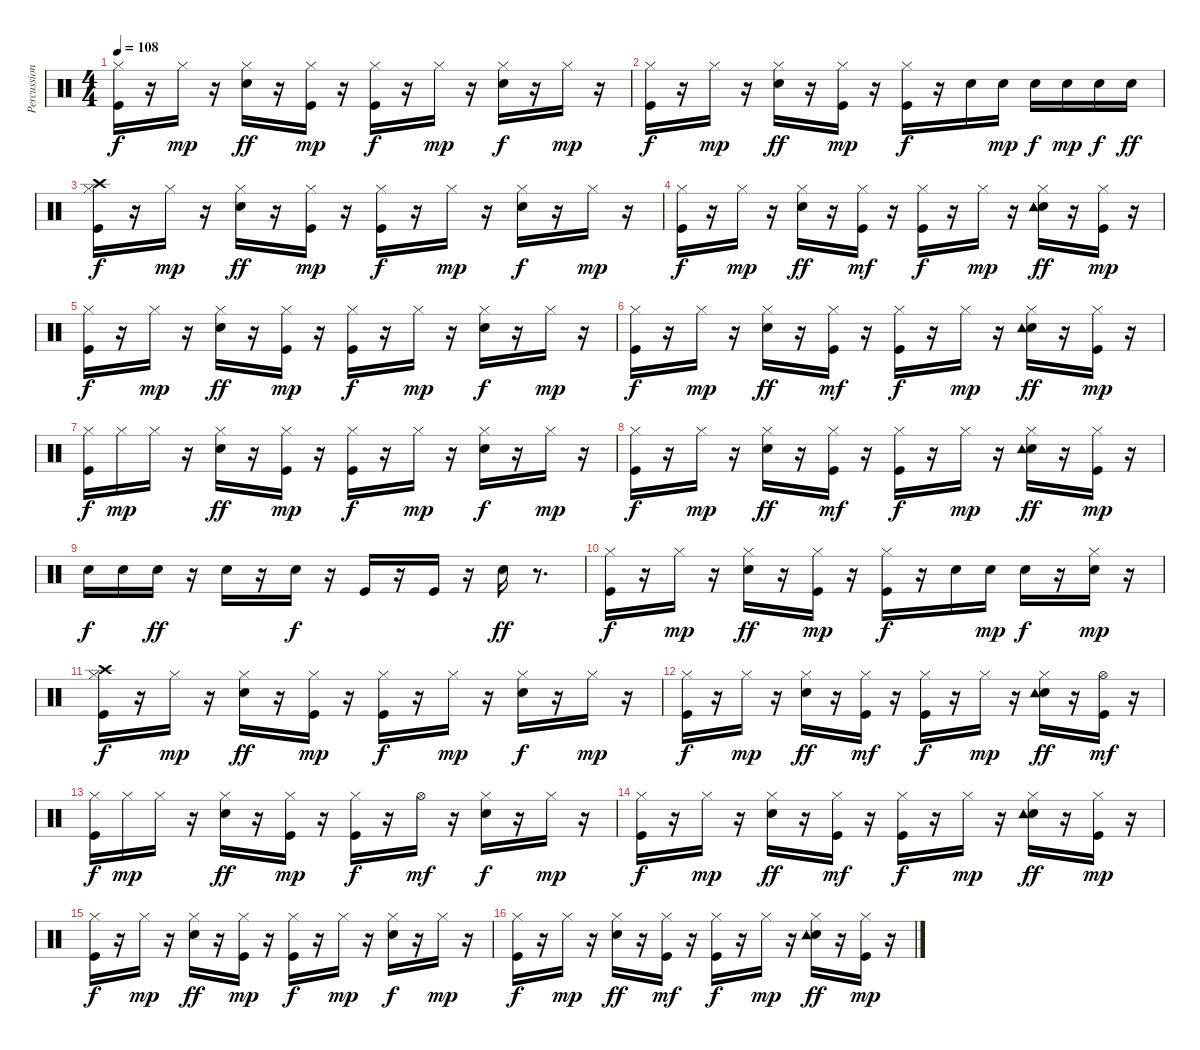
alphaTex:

\track ("Percussion" "Percussion") {instrument percussion}
\staff {score}
\articulation defaults
\ts (4 4)
\tempo 108
\clef neutral
\ks c
("Kick (hit)" "Hi-Hat (closed)").16{dy f} r.16 "Hi-Hat (closed)".16{dy mp} r.16 ("Snare (hit) 2" "Hi-Hat (closed)").16{dy ff} r.16 ("Kick (hit)" "Hi-Hat (closed)").16{dy mp} r.16 ("Kick (hit)" "Hi-Hat (closed)").16{dy f} r.16 "Hi-Hat (closed)".16{dy mp} r.16 ("Snare (hit) 2" "Hi-Hat (closed)").16{dy f} r.16 "Hi-Hat (closed)".16{dy mp} r.16 |
("Kick (hit)" "Hi-Hat (closed)").16{dy f} r.16 "Hi-Hat (closed)".16{dy mp} r.16 ("Snare (hit) 2" "Hi-Hat (closed)").16{dy ff} r.16 ("Kick (hit)" "Hi-Hat (closed)").16{dy mp} r.16 ("Kick (hit)" "Hi-Hat (closed)").16{dy f} r.16 "Snare (hit) 2".16 "Snare (hit) 2".16{dy mp} "Snare (hit) 2".16{dy f} "Snare (hit) 2".16{dy mp} "Snare (hit) 2".16{dy f} "Snare (hit) 2".16{dy ff} |
("Kick (hit)" "Hi-Hat (closed)" "Crash high (hit)").16{dy f} r.16 "Hi-Hat (closed)".16{dy mp} r.16 ("Snare (hit) 2" "Hi-Hat (closed)").16{dy ff} r.16 ("Kick (hit)" "Hi-Hat (closed)").16{dy mp} r.16 ("Kick (hit)" "Hi-Hat (closed)").16{dy f} r.16 "Hi-Hat (closed)".16{dy mp} r.16 ("Snare (hit) 2" "Hi-Hat (closed)").16{dy f} r.16 "Hi-Hat (closed)".16{dy mp} r.16 |
("Kick (hit)" "Hi-Hat (closed)").16{dy f} r.16 "Hi-Hat (closed)".16{dy mp} r.16 ("Snare (hit) 2" "Hi-Hat (closed)").16{dy ff} r.16 ("Kick (hit)" "Hi-Hat (closed)").16{dy mf} r.16 ("Kick (hit)" "Hi-Hat (closed)").16{dy f} r.16 "Hi-Hat (closed)".16{dy mp} r.16 ("Snare (hit) 2" "Hi-Hat (closed)" "Tambourine (hit)").16{dy ff} r.16 ("Kick (hit)" "Hi-Hat (closed)").16{dy mp} r.16 |
("Kick (hit)" "Hi-Hat (closed)").16{dy f} r.16 "Hi-Hat (closed)".16{dy mp} r.16 ("Snare (hit) 2" "Hi-Hat (closed)").16{dy ff} r.16 ("Kick (hit)" "Hi-Hat (closed)").16{dy mp} r.16 ("Kick (hit)" "Hi-Hat (closed)").16{dy f} r.16 "Hi-Hat (closed)".16{dy mp} r.16 ("Snare (hit) 2" "Hi-Hat (closed)").16{dy f} r.16 "Hi-Hat (closed)".16{dy mp} r.16 |
("Kick (hit)" "Hi-Hat (closed)").16{dy f} r.16 "Hi-Hat (closed)".16{dy mp} r.16 ("Snare (hit) 2" "Hi-Hat (closed)").16{dy ff} r.16 ("Kick (hit)" "Hi-Hat (closed)").16{dy mf} r.16 ("Kick (hit)" "Hi-Hat (closed)").16{dy f} r.16 "Hi-Hat (closed)".16{dy mp} r.16 ("Snare (hit) 2" "Hi-Hat (closed)" "Tambourine (hit)").16{dy ff} r.16 ("Kick (hit)" "Hi-Hat (closed)").16{dy mp} r.16 |
("Kick (hit)" "Hi-Hat (closed)").16{dy f} "Hi-Hat (closed)".16{dy mp} "Hi-Hat (closed)".16 r.16 ("Snare (hit) 2" "Hi-Hat (closed)").16{dy ff} r.16 ("Kick (hit)" "Hi-Hat (closed)").16{dy mp} r.16 ("Kick (hit)" "Hi-Hat (closed)").16{dy f} r.16 "Hi-Hat (closed)".16{dy mp} r.16 ("Snare (hit) 2" "Hi-Hat (closed)").16{dy f} r.16 "Hi-Hat (closed)".16{dy mp} r.16 |
("Kick (hit)" "Hi-Hat (closed)").16{dy f} r.16 "Hi-Hat (closed)".16{dy mp} r.16 ("Snare (hit) 2" "Hi-Hat (closed)").16{dy ff} r.16 ("Kick (hit)" "Hi-Hat (closed)").16{dy mf} r.16 ("Kick (hit)" "Hi-Hat (closed)").16{dy f} r.16 "Hi-Hat (closed)".16{dy mp} r.16 ("Snare (hit) 2" "Hi-Hat (closed)" "Tambourine (hit)").16{dy ff} r.16 ("Kick (hit)" "Hi-Hat (closed)").16{dy mp} r.16 |
"Snare (hit) 2".16{dy f} "Snare (hit) 2".16 "Snare (hit) 2".16{dy ff} r.16 "Snare (hit) 2".16 r.16 "Snare (hit) 2".16{dy f} r.16 "Kick (hit)".16 r.16 "Kick (hit)".16 r.16 "Snare (hit) 2".16{dy ff} r.8{d} |
("Kick (hit)" "Hi-Hat (closed)").16{dy f} r.16 "Hi-Hat (closed)".16{dy mp} r.16 ("Snare (hit) 2" "Hi-Hat (closed)").16{dy ff} r.16 ("Kick (hit)" "Hi-Hat (closed)").16{dy mp} r.16 ("Kick (hit)" "Hi-Hat (closed)").16{dy f} r.16 "Snare (hit) 2".16 "Snare (hit) 2".16{dy mp} "Snare (hit) 2".16{dy f} r.16 ("Snare (hit) 2" "Hi-Hat (closed)").16{dy mp} r.16 |
("Kick (hit)" "Hi-Hat (closed)" "Crash high (hit)").16{dy f} r.16 "Hi-Hat (closed)".16{dy mp} r.16 ("Snare (hit) 2" "Hi-Hat (closed)").16{dy ff} r.16 ("Kick (hit)" "Hi-Hat (closed)").16{dy mp} r.16 ("Kick (hit)" "Hi-Hat (closed)").16{dy f} r.16 "Hi-Hat (closed)".16{dy mp} r.16 ("Snare (hit) 2" "Hi-Hat (closed)").16{dy f} r.16 "Hi-Hat (closed)".16{dy mp} r.16 |
("Kick (hit)" "Hi-Hat (closed)").16{dy f} r.16 "Hi-Hat (closed)".16{dy mp} r.16 ("Snare (hit) 2" "Hi-Hat (closed)").16{dy ff} r.16 ("Kick (hit)" "Hi-Hat (closed)").16{dy mf} r.16 ("Kick (hit)" "Hi-Hat (closed)").16{dy f} r.16 "Hi-Hat (closed)".16{dy mp} r.16 ("Snare (hit) 2" "Hi-Hat (closed)" "Tambourine (hit)").16{dy ff} r.16 ("Kick (hit)" "Hi-Hat (open)").16{dy mf} r.16 |
("Kick (hit)" "Hi-Hat (closed)").16{dy f} "Hi-Hat (closed)".16{dy mp} "Hi-Hat (closed)".16 r.16 ("Snare (hit) 2" "Hi-Hat (closed)").16{dy ff} r.16 ("Kick (hit)" "Hi-Hat (closed)").16{dy mp} r.16 ("Kick (hit)" "Hi-Hat (closed)").16{dy f} r.16 "Hi-Hat (open)".16{dy mf} r.16 ("Snare (hit) 2" "Hi-Hat (closed)").16{dy f} r.16 "Hi-Hat (closed)".16{dy mp} r.16 |
("Kick (hit)" "Hi-Hat (closed)").16{dy f} r.16 "Hi-Hat (closed)".16{dy mp} r.16 ("Snare (hit) 2" "Hi-Hat (closed)").16{dy ff} r.16 ("Kick (hit)" "Hi-Hat (closed)").16{dy mf} r.16 ("Kick (hit)" "Hi-Hat (closed)").16{dy f} r.16 "Hi-Hat (closed)".16{dy mp} r.16 ("Snare (hit) 2" "Hi-Hat (closed)" "Tambourine (hit)").16{dy ff} r.16 ("Kick (hit)" "Hi-Hat (closed)").16{dy mp} r.16 |
("Kick (hit)" "Hi-Hat (closed)").16{dy f} r.16 "Hi-Hat (closed)".16{dy mp} r.16 ("Snare (hit) 2" "Hi-Hat (closed)").16{dy ff} r.16 ("Kick (hit)" "Hi-Hat (closed)").16{dy mp} r.16 ("Kick (hit)" "Hi-Hat (closed)").16{dy f} r.16 "Hi-Hat (closed)".16{dy mp} r.16 ("Snare (hit) 2" "Hi-Hat (closed)").16{dy f} r.16 "Hi-Hat (closed)".16{dy mp} r.16 |
("Kick (hit)" "Hi-Hat (closed)").16{dy f} r.16 "Hi-Hat (closed)".16{dy mp} r.16 ("Snare (hit) 2" "Hi-Hat (closed)").16{dy ff} r.16 ("Kick (hit)" "Hi-Hat (closed)").16{dy mf} r.16 ("Kick (hit)" "Hi-Hat (closed)").16{dy f} r.16 "Hi-Hat (closed)".16{dy mp} r.16 ("Snare (hit) 2" "Hi-Hat (closed)" "Tambourine (hit)").16{dy ff} r.16 ("Kick (hit)" "Hi-Hat (closed)").16{dy mp} r.16
